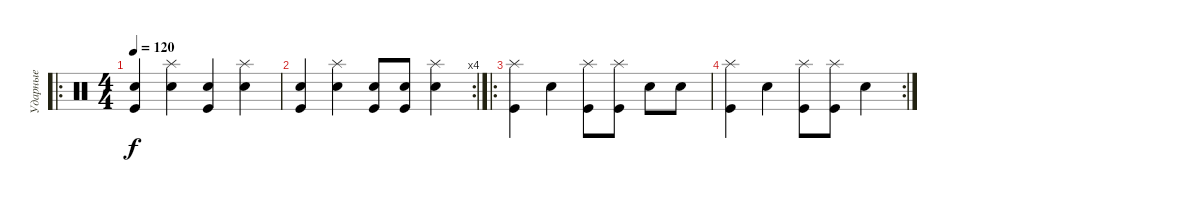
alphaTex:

\track ("Ударные" "Ударные") {instrument percussion}
\staff {score}
\articulation defaults
\ro
\ts (4 4)
\tempo 120
\clef neutral
\ks c
("Kick (hit)" "Snare (hit) 2").4{dy f} ("Electric Snare (hit)" "Splash (hit)").4 ("Kick (hit)" "Snare (hit) 2").4 ("Electric Snare (hit)" "Splash (hit)").4 |
\rc 4
("Kick (hit)" "Snare (hit) 2").4 ("Electric Snare (hit)" "Splash (hit)").4 ("Kick (hit)" "Snare (hit) 2").8 ("Kick (hit)" "Snare (hit) 2").8 ("Electric Snare (hit)" "Splash (hit)").4 |
\ro
("Kick (hit)" "Splash (hit)").4 "Snare (hit) 2".4 ("Kick (hit)" "Splash (hit)").8 ("Kick (hit)" "Splash (hit)").8 "Snare (hit) 2".8 "Snare (hit) 2".8 |
\rc 2
("Kick (hit)" "Splash (hit)").4 "Snare (hit) 2".4 ("Kick (hit)" "Splash (hit)").8 ("Kick (hit)" "Splash (hit)").8 "Snare (hit) 2".4
